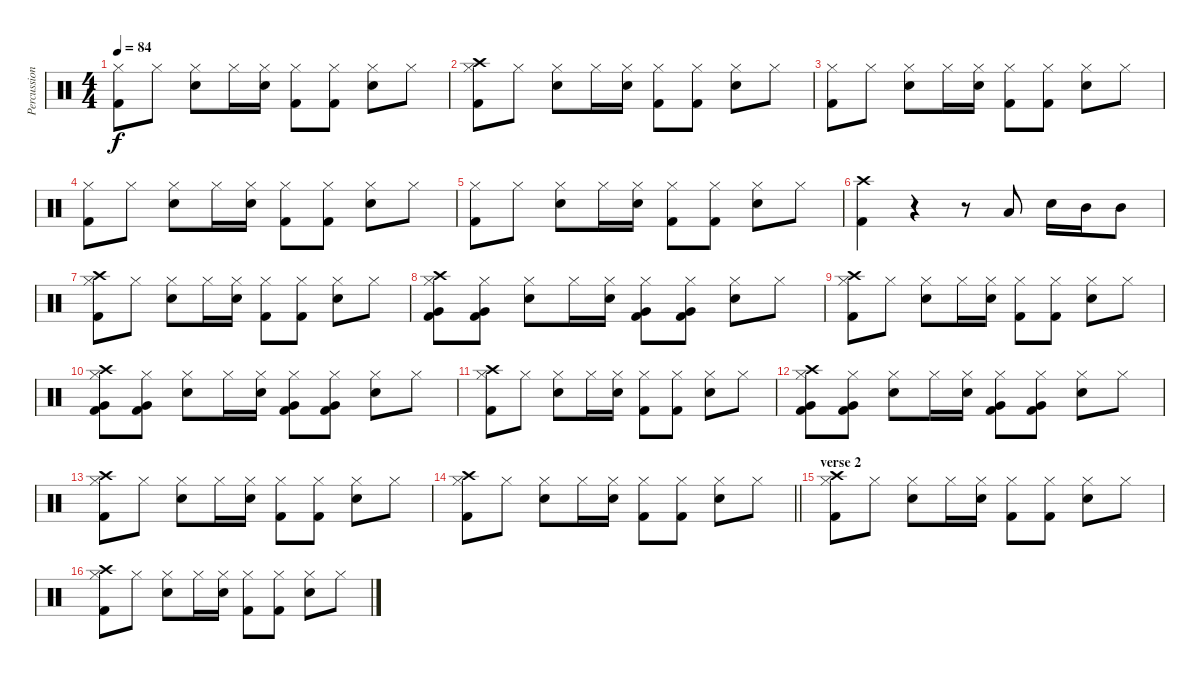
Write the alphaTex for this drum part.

\track ("Percussioni" "Percussion") {instrument percussion}
\staff {score}
\articulation defaults
\ts (4 4)
\tempo 84
\clef neutral
\ks c
("Hi-Hat (closed)" "Kick (hit) 2").8{dy f} "Hi-Hat (closed)".8 ("Hi-Hat (closed)" "Electric Snare (hit)").8 "Hi-Hat (closed)".16 ("Hi-Hat (closed)" "Electric Snare (hit)").16 ("Hi-Hat (closed)" "Kick (hit) 2").8 ("Hi-Hat (closed)" "Kick (hit) 2").8 ("Hi-Hat (closed)" "Electric Snare (hit)").8 "Hi-Hat (closed)".8 |
("Hi-Hat (closed)" "Kick (hit) 2" "Crash high (hit)").8 "Hi-Hat (closed)".8 ("Hi-Hat (closed)" "Electric Snare (hit)").8 "Hi-Hat (closed)".16 ("Hi-Hat (closed)" "Electric Snare (hit)").16 ("Hi-Hat (closed)" "Kick (hit) 2").8 ("Hi-Hat (closed)" "Kick (hit) 2").8 ("Hi-Hat (closed)" "Electric Snare (hit)").8 "Hi-Hat (closed)".8 |
("Hi-Hat (closed)" "Kick (hit) 2").8 "Hi-Hat (closed)".8 ("Hi-Hat (closed)" "Electric Snare (hit)").8 "Hi-Hat (closed)".16 ("Hi-Hat (closed)" "Electric Snare (hit)").16 ("Hi-Hat (closed)" "Kick (hit) 2").8 ("Hi-Hat (closed)" "Kick (hit) 2").8 ("Hi-Hat (closed)" "Electric Snare (hit)").8 "Hi-Hat (closed)".8 |
("Hi-Hat (closed)" "Kick (hit) 2").8 "Hi-Hat (closed)".8 ("Hi-Hat (closed)" "Electric Snare (hit)").8 "Hi-Hat (closed)".16 ("Hi-Hat (closed)" "Electric Snare (hit)").16 ("Hi-Hat (closed)" "Kick (hit) 2").8 ("Hi-Hat (closed)" "Kick (hit) 2").8 ("Hi-Hat (closed)" "Electric Snare (hit)").8 "Hi-Hat (closed)".8 |
("Hi-Hat (closed)" "Kick (hit) 2").8 "Hi-Hat (closed)".8 ("Hi-Hat (closed)" "Electric Snare (hit)").8 "Hi-Hat (closed)".16 ("Hi-Hat (closed)" "Electric Snare (hit)").16 ("Hi-Hat (closed)" "Kick (hit) 2").8 ("Hi-Hat (closed)" "Kick (hit) 2").8 ("Hi-Hat (closed)" "Electric Snare (hit)").8 "Hi-Hat (closed)".8 |
("Crash high (hit)" "Kick (hit) 2").4 r.4 r.8 "Low Tom (hit)".8 "Electric Snare (hit)".16 "Mid Tom (hit)".16 "Mid Tom (hit)".8 |
("Hi-Hat (closed)" "Kick (hit) 2" "Crash high (hit)").8 "Hi-Hat (closed)".8 ("Hi-Hat (closed)" "Electric Snare (hit)").8 "Hi-Hat (closed)".16 ("Hi-Hat (closed)" "Electric Snare (hit)").16 ("Hi-Hat (closed)" "Kick (hit) 2").8 ("Hi-Hat (closed)" "Kick (hit) 2").8 ("Hi-Hat (closed)" "Electric Snare (hit)").8 "Hi-Hat (closed)".8 |
("Very Low Tom (hit)" "Hi-Hat (closed)" "Kick (hit) 2" "Crash high (hit)").8 ("Very Low Tom (hit)" "Hi-Hat (closed)" "Kick (hit) 2").8 ("Electric Snare (hit)" "Hi-Hat (closed)").8 "Hi-Hat (closed)".16 ("Electric Snare (hit)" "Hi-Hat (closed)").16 ("Hi-Hat (closed)" "Very Low Tom (hit)" "Kick (hit) 2").8 ("Hi-Hat (closed)" "Very Low Tom (hit)" "Kick (hit) 2").8 ("Hi-Hat (closed)" "Electric Snare (hit)").8 "Hi-Hat (closed)".8 |
("Hi-Hat (closed)" "Kick (hit) 2" "Crash high (hit)").8 "Hi-Hat (closed)".8 ("Hi-Hat (closed)" "Electric Snare (hit)").8 "Hi-Hat (closed)".16 ("Hi-Hat (closed)" "Electric Snare (hit)").16 ("Hi-Hat (closed)" "Kick (hit) 2").8 ("Hi-Hat (closed)" "Kick (hit) 2").8 ("Hi-Hat (closed)" "Electric Snare (hit)").8 "Hi-Hat (closed)".8 |
("Very Low Tom (hit)" "Hi-Hat (closed)" "Kick (hit) 2" "Crash high (hit)").8 ("Very Low Tom (hit)" "Hi-Hat (closed)" "Kick (hit) 2").8 ("Electric Snare (hit)" "Hi-Hat (closed)").8 "Hi-Hat (closed)".16 ("Electric Snare (hit)" "Hi-Hat (closed)").16 ("Hi-Hat (closed)" "Very Low Tom (hit)" "Kick (hit) 2").8 ("Hi-Hat (closed)" "Very Low Tom (hit)" "Kick (hit) 2").8 ("Hi-Hat (closed)" "Electric Snare (hit)").8 "Hi-Hat (closed)".8 |
("Hi-Hat (closed)" "Kick (hit) 2" "Crash high (hit)").8 "Hi-Hat (closed)".8 ("Hi-Hat (closed)" "Electric Snare (hit)").8 "Hi-Hat (closed)".16 ("Hi-Hat (closed)" "Electric Snare (hit)").16 ("Hi-Hat (closed)" "Kick (hit) 2").8 ("Hi-Hat (closed)" "Kick (hit) 2").8 ("Hi-Hat (closed)" "Electric Snare (hit)").8 "Hi-Hat (closed)".8 |
("Very Low Tom (hit)" "Hi-Hat (closed)" "Kick (hit) 2" "Crash high (hit)").8 ("Very Low Tom (hit)" "Hi-Hat (closed)" "Kick (hit) 2").8 ("Electric Snare (hit)" "Hi-Hat (closed)").8 "Hi-Hat (closed)".16 ("Electric Snare (hit)" "Hi-Hat (closed)").16 ("Hi-Hat (closed)" "Very Low Tom (hit)" "Kick (hit) 2").8 ("Hi-Hat (closed)" "Very Low Tom (hit)" "Kick (hit) 2").8 ("Hi-Hat (closed)" "Electric Snare (hit)").8 "Hi-Hat (closed)".8 |
("Hi-Hat (closed)" "Kick (hit) 2" "Crash high (hit)").8 "Hi-Hat (closed)".8 ("Hi-Hat (closed)" "Electric Snare (hit)").8 "Hi-Hat (closed)".16 ("Hi-Hat (closed)" "Electric Snare (hit)").16 ("Hi-Hat (closed)" "Kick (hit) 2").8 ("Hi-Hat (closed)" "Kick (hit) 2").8 ("Hi-Hat (closed)" "Electric Snare (hit)").8 "Hi-Hat (closed)".8 |
\barLineRight lightlight
("Hi-Hat (closed)" "Kick (hit) 2" "Crash high (hit)").8 "Hi-Hat (closed)".8 ("Hi-Hat (closed)" "Electric Snare (hit)").8 "Hi-Hat (closed)".16 ("Hi-Hat (closed)" "Electric Snare (hit)").16 ("Hi-Hat (closed)" "Kick (hit) 2").8 ("Hi-Hat (closed)" "Kick (hit) 2").8 ("Hi-Hat (closed)" "Electric Snare (hit)").8 "Hi-Hat (closed)".8 |
\section ("" "verse 2")
("Hi-Hat (closed)" "Kick (hit) 2" "Crash high (hit)").8 "Hi-Hat (closed)".8 ("Hi-Hat (closed)" "Electric Snare (hit)").8 "Hi-Hat (closed)".16 ("Hi-Hat (closed)" "Electric Snare (hit)").16 ("Hi-Hat (closed)" "Kick (hit) 2").8 ("Hi-Hat (closed)" "Kick (hit) 2").8 ("Hi-Hat (closed)" "Electric Snare (hit)").8 "Hi-Hat (closed)".8 |
("Hi-Hat (closed)" "Kick (hit) 2" "Crash high (hit)").8 "Hi-Hat (closed)".8 ("Hi-Hat (closed)" "Electric Snare (hit)").8 "Hi-Hat (closed)".16 ("Hi-Hat (closed)" "Electric Snare (hit)").16 ("Hi-Hat (closed)" "Kick (hit) 2").8 ("Hi-Hat (closed)" "Kick (hit) 2").8 ("Hi-Hat (closed)" "Electric Snare (hit)").8 "Hi-Hat (closed)".8
